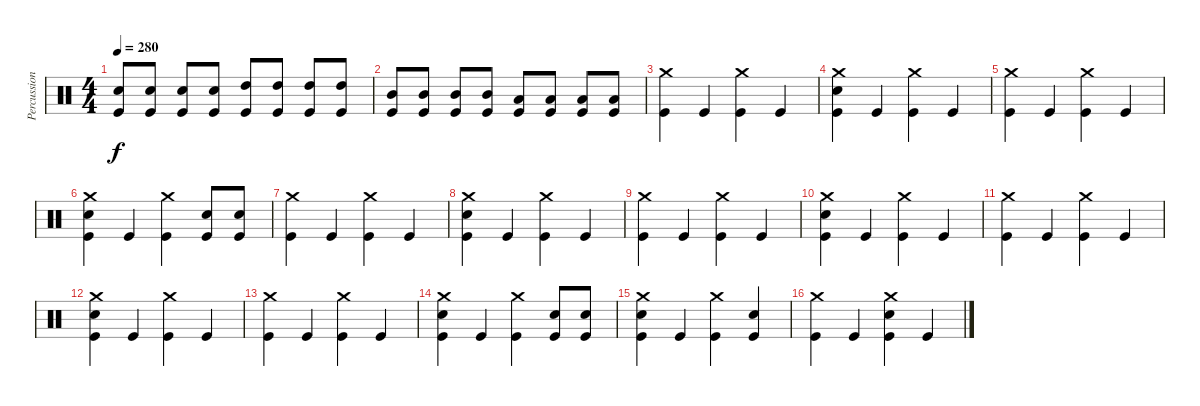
\track ("Percussion" "Percussion") {instrument percussion}
\staff {score}
\articulation defaults
\ts (4 4)
\tempo 280
\clef neutral
\ks c
("Electric Snare (hit)" "Kick (hit)").8{dy f} ("Electric Snare (hit)" "Kick (hit)").8 ("Electric Snare (hit)" "Kick (hit)").8 ("Electric Snare (hit)" "Kick (hit)").8 ("High Tom (hit)" "Kick (hit)").8 ("High Tom (hit)" "Kick (hit)").8 ("High Tom (hit)" "Kick (hit)").8 ("High Tom (hit)" "Kick (hit)").8 |
("Mid Tom (hit)" "Kick (hit)").8 ("Mid Tom (hit)" "Kick (hit)").8 ("Mid Tom (hit)" "Kick (hit)").8 ("Mid Tom (hit)" "Kick (hit)").8 ("Low Tom (hit)" "Kick (hit)").8 ("Low Tom (hit)" "Kick (hit)").8 ("Low Tom (hit)" "Kick (hit)").8 ("Low Tom (hit)" "Kick (hit)").8 |
("Crash medium (hit)" "Kick (hit)").4 "Kick (hit)".4 ("Crash medium (hit)" "Kick (hit)").4 "Kick (hit)".4 |
("Crash medium (hit)" "Electric Snare (hit)" "Kick (hit)").4 "Kick (hit)".4 ("Crash medium (hit)" "Kick (hit)").4 "Kick (hit)".4 |
("Crash medium (hit)" "Kick (hit)").4 "Kick (hit)".4 ("Crash medium (hit)" "Kick (hit)").4 "Kick (hit)".4 |
("Crash medium (hit)" "Electric Snare (hit)" "Kick (hit)").4 "Kick (hit)".4 ("Crash medium (hit)" "Kick (hit)").4 ("Electric Snare (hit)" "Kick (hit)").8 ("Electric Snare (hit)" "Kick (hit)").8 |
("Crash medium (hit)" "Kick (hit)").4 "Kick (hit)".4 ("Crash medium (hit)" "Kick (hit)").4 "Kick (hit)".4 |
("Crash medium (hit)" "Electric Snare (hit)" "Kick (hit)").4 "Kick (hit)".4 ("Crash medium (hit)" "Kick (hit)").4 "Kick (hit)".4 |
("Crash medium (hit)" "Kick (hit)").4 "Kick (hit)".4 ("Crash medium (hit)" "Kick (hit)").4 "Kick (hit)".4 |
("Crash medium (hit)" "Electric Snare (hit)" "Kick (hit)").4 "Kick (hit)".4 ("Crash medium (hit)" "Kick (hit)").4 "Kick (hit)".4 |
("Crash medium (hit)" "Kick (hit)").4 "Kick (hit)".4 ("Crash medium (hit)" "Kick (hit)").4 "Kick (hit)".4 |
("Crash medium (hit)" "Electric Snare (hit)" "Kick (hit)").4 "Kick (hit)".4 ("Crash medium (hit)" "Kick (hit)").4 "Kick (hit)".4 |
("Crash medium (hit)" "Kick (hit)").4 "Kick (hit)".4 ("Crash medium (hit)" "Kick (hit)").4 "Kick (hit)".4 |
("Crash medium (hit)" "Electric Snare (hit)" "Kick (hit)").4 "Kick (hit)".4 ("Crash medium (hit)" "Kick (hit)").4 ("Electric Snare (hit)" "Kick (hit)").8 ("Electric Snare (hit)" "Kick (hit)").8 |
("Crash medium (hit)" "Electric Snare (hit)" "Kick (hit)").4 "Kick (hit)".4 ("Crash medium (hit)" "Kick (hit)").4 ("Electric Snare (hit)" "Kick (hit)").4 |
("Crash medium (hit)" "Kick (hit)").4 "Kick (hit)".4 ("Crash medium (hit)" "Electric Snare (hit)" "Kick (hit)").4 "Kick (hit)".4
